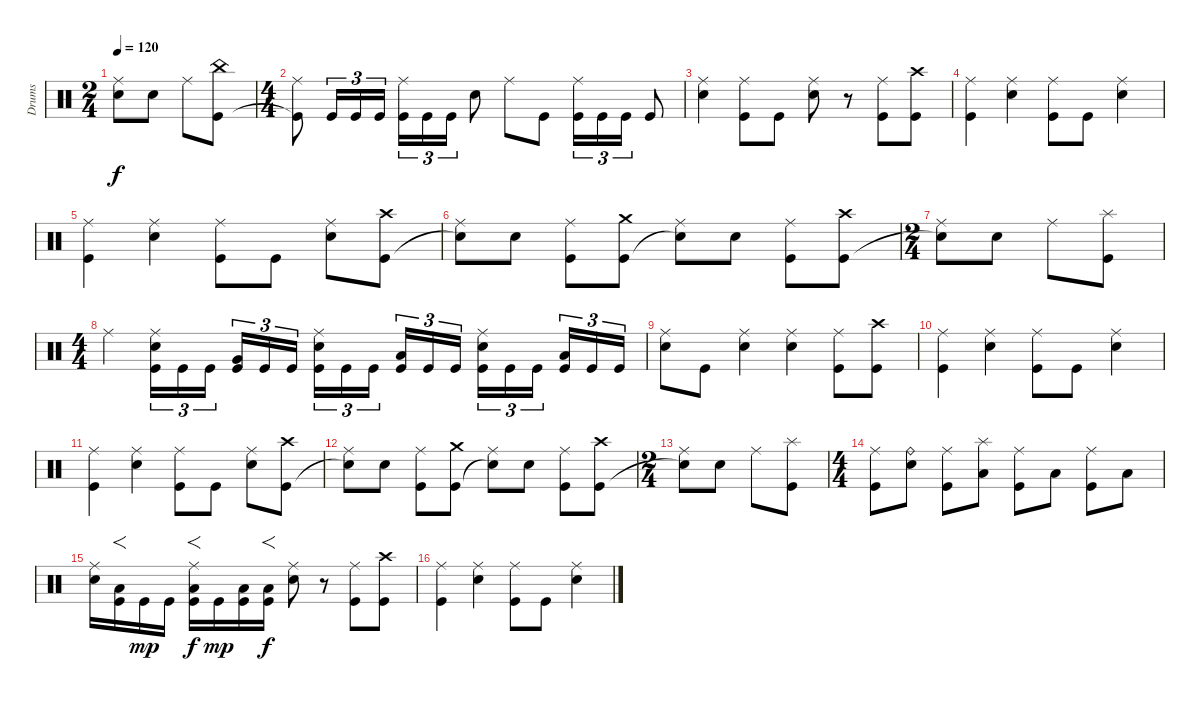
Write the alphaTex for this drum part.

\track ("Drums" "Drums") {instrument percussion}
\staff {score}
\articulation defaults
\ts (2 4)
\tempo 120
\clef neutral
\ks c
("Ride (middle)" "Snare (hit)"{t}).8{dy f} "Electric Snare (hit)".8 "Ride (middle)".8 ("China (hit)" "Kick (hit)").8 |
\ts (4 4)
("Ride (middle)" "Kick (hit)"{t}).8 "Kick (hit)".16{tu (3 2)} "Kick (hit)".16{tu (3 2)} "Kick (hit)".16{tu (3 2)} ("Ride (middle)" "Kick (hit)").16{tu (3 2)} "Kick (hit)".16{tu (3 2)} "Kick (hit)".16{tu (3 2)} "Electric Snare (hit)".8 "Ride (middle)".8 "Kick (hit)".8 ("Ride (middle)" "Kick (hit)").16{tu (3 2)} "Kick (hit)".16{tu (3 2)} "Kick (hit)".16{tu (3 2)} "Kick (hit)".8 |
("Ride (middle)" "Electric Snare (hit)").4 ("Ride (middle)" "Kick (hit)").8 "Kick (hit)".8 ("Ride (middle)" "Electric Snare (hit)").8 r.8 ("Ride (middle)" "Kick (hit)").8 ("Crash high (hit)" "Kick (hit)").8 |
("Ride (middle)" "Kick (hit)").4 ("Ride (middle)" "Electric Snare (hit)").4 ("Ride (middle)" "Kick (hit)").8 "Kick (hit)".8 ("Ride (middle)" "Electric Snare (hit)").4 |
("Ride (middle)" "Kick (hit)").4 ("Ride (middle)" "Electric Snare (hit)").4 ("Ride (middle)" "Kick (hit)").8 "Kick (hit)".8 ("Ride (middle)" "Electric Snare (hit)").8 ("Crash high (hit)" "Kick (hit)").8 |
("Ride (middle)" "Snare (hit)"{t}).8 "Electric Snare (hit)".8 ("Ride (middle)" "Kick (hit)").8 ("Crash medium (hit)" "Kick (hit)").8 ("Ride (middle)" "Snare (hit)"{t}).8 "Electric Snare (hit)".8 ("Ride (middle)" "Kick (hit)").8 ("Crash high (hit)" "Kick (hit)").8 |
\ts (2 4)
("Ride (middle)" "Snare (hit)"{t}).8 "Electric Snare (hit)".8 "Ride (middle)".8 ("Splash (hit)" "Kick (hit)").8 |
\ts (4 4)
"Ride (middle)".4 ("Ride (middle)" "Electric Snare (hit)" "Kick (hit)").16{tu (3 2)} "Kick (hit)".16{tu (3 2)} "Kick (hit)".16{tu (3 2) beam splitsecondary} ("Very Low Tom (hit)" "Kick (hit)").16{tu (3 2)} "Kick (hit)".16{tu (3 2)} "Kick (hit)".16{tu (3 2)} ("Ride (middle)" "Electric Snare (hit)" "Kick (hit)").16{tu (3 2)} "Kick (hit)".16{tu (3 2)} "Kick (hit)".16{tu (3 2) beam splitsecondary} ("Low Tom (hit)" "Kick (hit)").16{tu (3 2)} "Kick (hit)".16{tu (3 2)} "Kick (hit)".16{tu (3 2)} ("Ride (middle)" "Electric Snare (hit)" "Kick (hit)").16{tu (3 2)} "Kick (hit)".16{tu (3 2)} "Kick (hit)".16{tu (3 2) beam splitsecondary} ("Low Floor Tom (hit)" "Kick (hit)").16{tu (3 2)} "Kick (hit)".16{tu (3 2)} "Kick (hit)".16{tu (3 2)} |
("Ride (middle)" "Electric Snare (hit)").8 "Kick (hit)".8 ("Ride (middle)" "Electric Snare (hit)").4 ("Ride (middle)" "Electric Snare (hit)").4 ("Ride (middle)" "Kick (hit)").8 ("Crash high (hit)" "Kick (hit)").8 |
("Ride (middle)" "Kick (hit)").4 ("Ride (middle)" "Electric Snare (hit)").4 ("Ride (middle)" "Kick (hit)").8 "Kick (hit)".8 ("Ride (middle)" "Electric Snare (hit)").4 |
("Ride (middle)" "Kick (hit)").4 ("Ride (middle)" "Electric Snare (hit)").4 ("Ride (middle)" "Kick (hit)").8 "Kick (hit)".8 ("Ride (middle)" "Electric Snare (hit)").8 ("Crash high (hit)" "Kick (hit)").8 |
("Ride (middle)" "Snare (hit)"{t}).8 "Electric Snare (hit)".8 ("Ride (middle)" "Kick (hit)").8 ("Crash medium (hit)" "Kick (hit)").8 ("Ride (middle)" "Snare (hit)"{t}).8 "Electric Snare (hit)".8 ("Ride (middle)" "Kick (hit)").8 ("Crash high (hit)" "Kick (hit)").8 |
\ts (2 4)
("Ride (middle)" "Snare (hit)"{t}).8 "Electric Snare (hit)".8 "Ride (middle)".8 ("Splash (hit)" "Kick (hit)").8 |
\ts (4 4)
("Ride (middle)" "Kick (hit)").8 ("Ride (bell)" "Electric Snare (hit)").8 ("Ride (middle)" "Kick (hit)").8 ("Splash (hit)" "Low Tom (hit)").8 ("Ride (middle)" "Kick (hit)").8 "Low Floor Tom (hit)".8 ("Ride (middle)" "Kick (hit)").8 "Low Floor Tom (hit)".8 |
("Ride (middle)" "Electric Snare (hit)").16 ("Low Floor Tom (hit)" "Kick (hit)").16{f} "Kick (hit)".16{dy mp} "Kick (hit)".16 ("Ride (middle)" "Low Floor Tom (hit)" "Kick (hit)").16{f dy f} "Kick (hit)".16{dy mp} ("Low Floor Tom (hit)" "Kick (hit)").16 ("Low Floor Tom (hit)" "Kick (hit)").16{f dy f} ("Ride (middle)" "Electric Snare (hit)").8 r.8 ("Ride (middle)" "Kick (hit)").8 ("Crash high (hit)" "Kick (hit)").8 |
("Ride (middle)" "Kick (hit)").4 ("Ride (middle)" "Electric Snare (hit)").4 ("Ride (middle)" "Kick (hit)").8 "Kick (hit)".8 ("Ride (middle)" "Electric Snare (hit)").4
